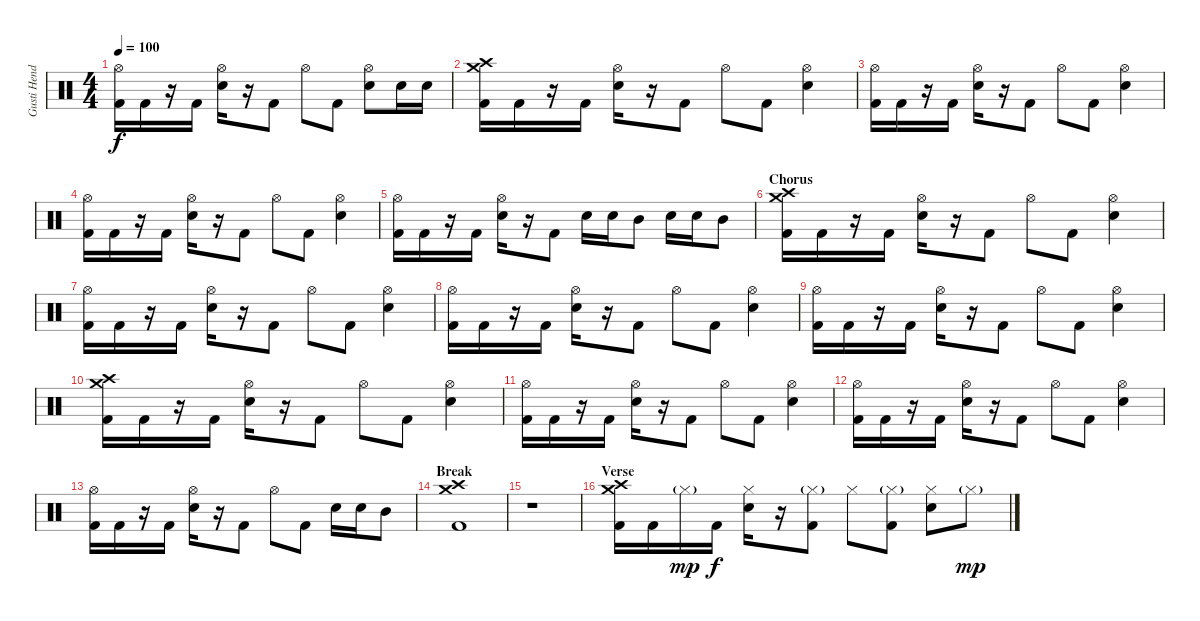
\track ("Gusti Hendy" "Gusti Hend") {instrument percussion}
\staff {score}
\articulation defaults
\ts (4 4)
\tempo 100
\clef neutral
\ks c
("Hi-Hat (open)" "Kick (hit) 2").16{dy f} "Kick (hit) 2".16 r.16 "Kick (hit) 2".16 ("Hi-Hat (open)" "Electric Snare (hit)").16 r.16 "Kick (hit) 2".8 "Hi-Hat (open)".8 "Kick (hit) 2".8 ("Hi-Hat (open)" "Electric Snare (hit)").8 "Electric Snare (hit)".16 "Electric Snare (hit)".16 |
("Crash high (hit)" "Crash medium (hit)" "Kick (hit) 2").16 "Kick (hit) 2".16 r.16 "Kick (hit) 2".16 ("Hi-Hat (open)" "Electric Snare (hit)").16 r.16 "Kick (hit) 2".8 "Hi-Hat (open)".8 "Kick (hit) 2".8 ("Hi-Hat (open)" "Electric Snare (hit)").4 |
("Hi-Hat (open)" "Kick (hit) 2").16 "Kick (hit) 2".16 r.16 "Kick (hit) 2".16 ("Hi-Hat (open)" "Electric Snare (hit)").16 r.16 "Kick (hit) 2".8 "Hi-Hat (open)".8 "Kick (hit) 2".8 ("Hi-Hat (open)" "Electric Snare (hit)").4 |
("Hi-Hat (open)" "Kick (hit) 2").16 "Kick (hit) 2".16 r.16 "Kick (hit) 2".16 ("Hi-Hat (open)" "Electric Snare (hit)").16 r.16 "Kick (hit) 2".8 "Hi-Hat (open)".8 "Kick (hit) 2".8 ("Hi-Hat (open)" "Electric Snare (hit)").4 |
("Hi-Hat (open)" "Kick (hit) 2").16 "Kick (hit) 2".16 r.16 "Kick (hit) 2".16 ("Hi-Hat (open)" "Electric Snare (hit)").16 r.16 "Kick (hit) 2".8 "Electric Snare (hit)".16 "Electric Snare (hit)".16 "Mid Tom (hit)".8 "Electric Snare (hit)".16 "Electric Snare (hit)".16 "Mid Tom (hit)".8 |
\section ("" "Chorus")
("Crash high (hit)" "Crash medium (hit)" "Kick (hit) 2").16 "Kick (hit) 2".16 r.16 "Kick (hit) 2".16 ("Hi-Hat (open)" "Electric Snare (hit)").16 r.16 "Kick (hit) 2".8 "Hi-Hat (open)".8 "Kick (hit) 2".8 ("Hi-Hat (open)" "Electric Snare (hit)").4 |
("Hi-Hat (open)" "Kick (hit) 2").16 "Kick (hit) 2".16 r.16 "Kick (hit) 2".16 ("Hi-Hat (open)" "Electric Snare (hit)").16 r.16 "Kick (hit) 2".8 "Hi-Hat (open)".8 "Kick (hit) 2".8 ("Hi-Hat (open)" "Electric Snare (hit)").4 |
("Hi-Hat (open)" "Kick (hit) 2").16 "Kick (hit) 2".16 r.16 "Kick (hit) 2".16 ("Hi-Hat (open)" "Electric Snare (hit)").16 r.16 "Kick (hit) 2".8 "Hi-Hat (open)".8 "Kick (hit) 2".8 ("Hi-Hat (open)" "Electric Snare (hit)").4 |
("Hi-Hat (open)" "Kick (hit) 2").16 "Kick (hit) 2".16 r.16 "Kick (hit) 2".16 ("Hi-Hat (open)" "Electric Snare (hit)").16 r.16 "Kick (hit) 2".8 "Hi-Hat (open)".8 "Kick (hit) 2".8 ("Hi-Hat (open)" "Electric Snare (hit)").4 |
("Crash high (hit)" "Crash medium (hit)" "Kick (hit) 2").16 "Kick (hit) 2".16 r.16 "Kick (hit) 2".16 ("Hi-Hat (open)" "Electric Snare (hit)").16 r.16 "Kick (hit) 2".8 "Hi-Hat (open)".8 "Kick (hit) 2".8 ("Hi-Hat (open)" "Electric Snare (hit)").4 |
("Hi-Hat (open)" "Kick (hit) 2").16 "Kick (hit) 2".16 r.16 "Kick (hit) 2".16 ("Hi-Hat (open)" "Electric Snare (hit)").16 r.16 "Kick (hit) 2".8 "Hi-Hat (open)".8 "Kick (hit) 2".8 ("Hi-Hat (open)" "Electric Snare (hit)").4 |
("Hi-Hat (open)" "Kick (hit) 2").16 "Kick (hit) 2".16 r.16 "Kick (hit) 2".16 ("Hi-Hat (open)" "Electric Snare (hit)").16 r.16 "Kick (hit) 2".8 "Hi-Hat (open)".8 "Kick (hit) 2".8 ("Hi-Hat (open)" "Electric Snare (hit)").4 |
("Hi-Hat (open)" "Kick (hit) 2").16 "Kick (hit) 2".16 r.16 "Kick (hit) 2".16 ("Hi-Hat (open)" "Electric Snare (hit)").16 r.16 "Kick (hit) 2".8 "Hi-Hat (open)".8 "Kick (hit) 2".8 "Electric Snare (hit)".16 "Electric Snare (hit)".16 "Mid Tom (hit)".8 |
\section ("" "Break")
("Crash high (hit)" "Crash medium (hit)" "Kick (hit) 2").1 |
r.1 |
\section ("" "Verse")
("Crash high (hit)" "Crash medium (hit)" "Kick (hit) 2").16 "Kick (hit) 2".16 "Hi-Hat (closed)"{g}.16{dy mp} "Kick (hit) 2".16{dy f} ("Hi-Hat (closed)" "Electric Snare (hit)").16 r.16 ("Hi-Hat (closed)"{g} "Kick (hit) 2").8 "Hi-Hat (closed)".8 ("Hi-Hat (closed)"{g} "Kick (hit) 2").8 ("Hi-Hat (closed)" "Electric Snare (hit)").8 "Hi-Hat (closed)"{g}.8{dy mp}
